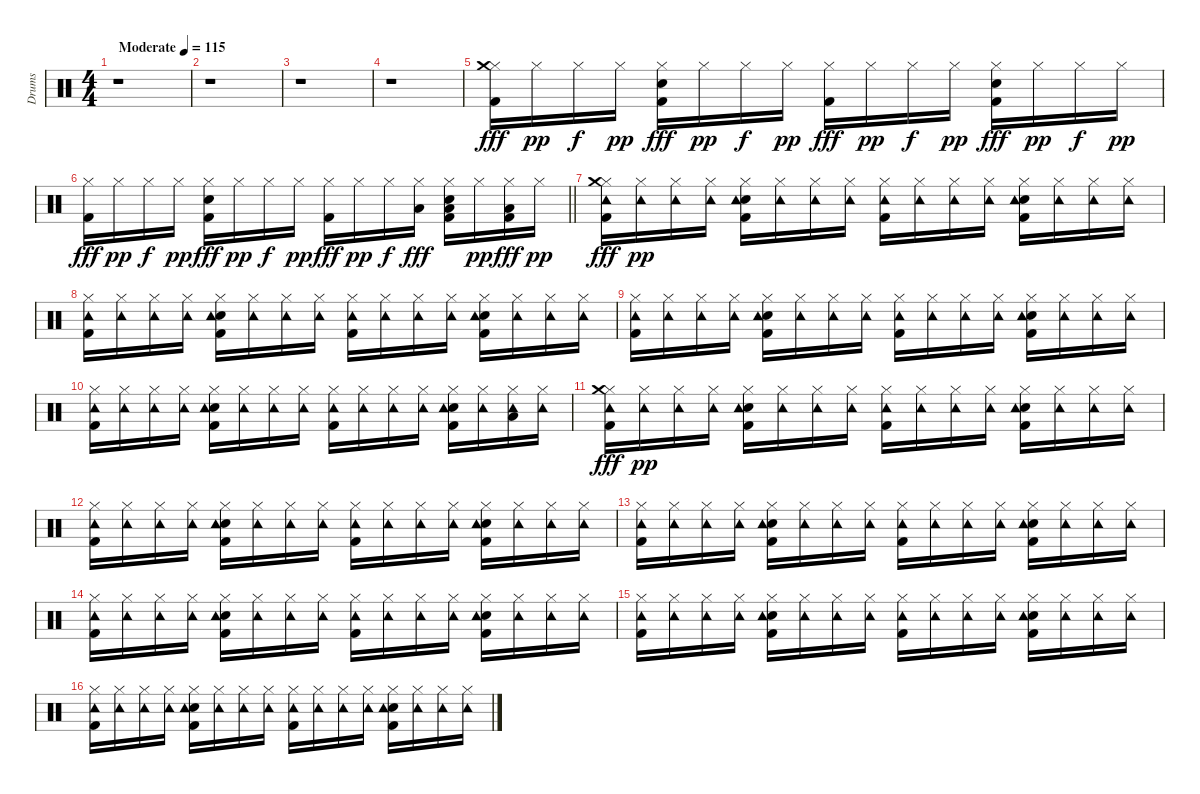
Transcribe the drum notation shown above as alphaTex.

\track ("Drums" "Drums") {instrument percussion}
\staff {score}
\articulation defaults
\ts (4 4)
\tempo (115 "Moderate")
\clef neutral
\ks c
r.1{dy fff} |
r.1 |
r.1 |
r.1 |
("Kick (hit) 2" "Hi-Hat (closed)" "Crash medium (hit)").16 "Hi-Hat (closed)".16{dy pp} "Hi-Hat (closed)".16{dy f} "Hi-Hat (closed)".16{dy pp} ("Kick (hit) 2" "Snare (hit) 2" "Hi-Hat (closed)").16{dy fff} "Hi-Hat (closed)".16{dy pp} "Hi-Hat (closed)".16{dy f} "Hi-Hat (closed)".16{dy pp} ("Kick (hit) 2" "Hi-Hat (closed)").16{dy fff} "Hi-Hat (closed)".16{dy pp} "Hi-Hat (closed)".16{dy f} "Hi-Hat (closed)".16{dy pp} ("Kick (hit) 2" "Snare (hit) 2" "Hi-Hat (closed)").16{dy fff} "Hi-Hat (closed)".16{dy pp} "Hi-Hat (closed)".16{dy f} "Hi-Hat (closed)".16{dy pp} |
\barLineRight lightlight
("Kick (hit) 2" "Hi-Hat (closed)").16{dy fff} "Hi-Hat (closed)".16{dy pp} "Hi-Hat (closed)".16{dy f} "Hi-Hat (closed)".16{dy pp} ("Kick (hit) 2" "Snare (hit) 2" "Hi-Hat (closed)").16{dy fff} "Hi-Hat (closed)".16{dy pp} "Hi-Hat (closed)".16{dy f} "Hi-Hat (closed)".16{dy pp} ("Kick (hit) 2" "Hi-Hat (closed)").16{dy fff} "Hi-Hat (closed)".16{dy pp} "Hi-Hat (closed)".16{dy f} ("Hi-Hat (closed)" "Low Tom (hit)").16{dy fff} ("Kick (hit) 2" "Snare (hit) 2" "Hi-Hat (closed)" "Low Tom (hit)").16 "Hi-Hat (closed)".16{dy pp} ("Kick (hit) 2" "Low Floor Tom (hit)" "Hi-Hat (closed)").16{dy fff} "Hi-Hat (closed)".16{dy pp} |
("Kick (hit) 2" "Hi-Hat (closed)" "Tambourine (hit)" "Crash medium (hit)").16{dy fff} ("Hi-Hat (closed)" "Tambourine (hit)").16{dy pp} ("Hi-Hat (closed)" "Tambourine (hit)").16 ("Hi-Hat (closed)" "Tambourine (hit)").16 ("Kick (hit) 2" "Snare (hit) 2" "Hi-Hat (closed)" "Tambourine (hit)").16 ("Hi-Hat (closed)" "Tambourine (hit)").16 ("Hi-Hat (closed)" "Tambourine (hit)").16 ("Hi-Hat (closed)" "Tambourine (hit)").16 ("Kick (hit) 2" "Hi-Hat (closed)" "Tambourine (hit)").16 ("Hi-Hat (closed)" "Tambourine (hit)").16 ("Hi-Hat (closed)" "Tambourine (hit)").16 ("Hi-Hat (closed)" "Tambourine (hit)").16 ("Kick (hit) 2" "Snare (hit) 2" "Hi-Hat (closed)" "Tambourine (hit)").16 ("Hi-Hat (closed)" "Tambourine (hit)").16 ("Hi-Hat (closed)" "Tambourine (hit)").16 ("Hi-Hat (closed)" "Tambourine (hit)").16 |
("Kick (hit) 2" "Hi-Hat (closed)" "Tambourine (hit)").16 ("Hi-Hat (closed)" "Tambourine (hit)").16 ("Hi-Hat (closed)" "Tambourine (hit)").16 ("Hi-Hat (closed)" "Tambourine (hit)").16 ("Kick (hit) 2" "Snare (hit) 2" "Hi-Hat (closed)" "Tambourine (hit)").16 ("Hi-Hat (closed)" "Tambourine (hit)").16 ("Hi-Hat (closed)" "Tambourine (hit)").16 ("Hi-Hat (closed)" "Tambourine (hit)").16 ("Kick (hit) 2" "Hi-Hat (closed)" "Tambourine (hit)").16 ("Hi-Hat (closed)" "Tambourine (hit)").16 ("Hi-Hat (closed)" "Tambourine (hit)").16 ("Hi-Hat (closed)" "Tambourine (hit)").16 ("Kick (hit) 2" "Snare (hit) 2" "Hi-Hat (closed)" "Tambourine (hit)").16 ("Hi-Hat (closed)" "Tambourine (hit)").16 ("Hi-Hat (closed)" "Tambourine (hit)").16 ("Hi-Hat (closed)" "Tambourine (hit)").16 |
("Kick (hit) 2" "Hi-Hat (closed)" "Tambourine (hit)").16 ("Hi-Hat (closed)" "Tambourine (hit)").16 ("Hi-Hat (closed)" "Tambourine (hit)").16 ("Hi-Hat (closed)" "Tambourine (hit)").16 ("Kick (hit) 2" "Snare (hit) 2" "Hi-Hat (closed)" "Tambourine (hit)").16 ("Hi-Hat (closed)" "Tambourine (hit)").16 ("Hi-Hat (closed)" "Tambourine (hit)").16 ("Hi-Hat (closed)" "Tambourine (hit)").16 ("Kick (hit) 2" "Hi-Hat (closed)" "Tambourine (hit)").16 ("Hi-Hat (closed)" "Tambourine (hit)").16 ("Hi-Hat (closed)" "Tambourine (hit)").16 ("Hi-Hat (closed)" "Tambourine (hit)").16 ("Kick (hit) 2" "Snare (hit) 2" "Hi-Hat (closed)" "Tambourine (hit)").16 ("Hi-Hat (closed)" "Tambourine (hit)").16 ("Hi-Hat (closed)" "Tambourine (hit)").16 ("Hi-Hat (closed)" "Tambourine (hit)").16 |
("Kick (hit) 2" "Hi-Hat (closed)" "Tambourine (hit)").16 ("Hi-Hat (closed)" "Tambourine (hit)").16 ("Hi-Hat (closed)" "Tambourine (hit)").16 ("Hi-Hat (closed)" "Tambourine (hit)").16 ("Kick (hit) 2" "Snare (hit) 2" "Hi-Hat (closed)" "Tambourine (hit)").16 ("Hi-Hat (closed)" "Tambourine (hit)").16 ("Hi-Hat (closed)" "Tambourine (hit)").16 ("Hi-Hat (closed)" "Tambourine (hit)").16 ("Kick (hit) 2" "Hi-Hat (closed)" "Tambourine (hit)").16 ("Hi-Hat (closed)" "Tambourine (hit)").16 ("Hi-Hat (closed)" "Tambourine (hit)").16 ("Hi-Hat (closed)" "Tambourine (hit)").16 ("Kick (hit) 2" "Snare (hit) 2" "Hi-Hat (closed)" "Tambourine (hit)").16 ("Hi-Hat (closed)" "Tambourine (hit)").16 ("Hi-Hat (closed)" "Low Tom (hit)" "Tambourine (hit)").16 ("Hi-Hat (closed)" "Tambourine (hit)").16 |
("Kick (hit) 2" "Hi-Hat (closed)" "Tambourine (hit)" "Crash medium (hit)").16{dy fff} ("Hi-Hat (closed)" "Tambourine (hit)").16{dy pp} ("Hi-Hat (closed)" "Tambourine (hit)").16 ("Hi-Hat (closed)" "Tambourine (hit)").16 ("Kick (hit) 2" "Snare (hit) 2" "Hi-Hat (closed)" "Tambourine (hit)").16 ("Hi-Hat (closed)" "Tambourine (hit)").16 ("Hi-Hat (closed)" "Tambourine (hit)").16 ("Hi-Hat (closed)" "Tambourine (hit)").16 ("Kick (hit) 2" "Hi-Hat (closed)" "Tambourine (hit)").16 ("Hi-Hat (closed)" "Tambourine (hit)").16 ("Hi-Hat (closed)" "Tambourine (hit)").16 ("Hi-Hat (closed)" "Tambourine (hit)").16 ("Kick (hit) 2" "Snare (hit) 2" "Hi-Hat (closed)" "Tambourine (hit)").16 ("Hi-Hat (closed)" "Tambourine (hit)").16 ("Hi-Hat (closed)" "Tambourine (hit)").16 ("Hi-Hat (closed)" "Tambourine (hit)").16 |
("Kick (hit) 2" "Hi-Hat (closed)" "Tambourine (hit)").16 ("Hi-Hat (closed)" "Tambourine (hit)").16 ("Hi-Hat (closed)" "Tambourine (hit)").16 ("Hi-Hat (closed)" "Tambourine (hit)").16 ("Kick (hit) 2" "Snare (hit) 2" "Hi-Hat (closed)" "Tambourine (hit)").16 ("Hi-Hat (closed)" "Tambourine (hit)").16 ("Hi-Hat (closed)" "Tambourine (hit)").16 ("Hi-Hat (closed)" "Tambourine (hit)").16 ("Kick (hit) 2" "Hi-Hat (closed)" "Tambourine (hit)").16 ("Hi-Hat (closed)" "Tambourine (hit)").16 ("Hi-Hat (closed)" "Tambourine (hit)").16 ("Hi-Hat (closed)" "Tambourine (hit)").16 ("Kick (hit) 2" "Snare (hit) 2" "Hi-Hat (closed)" "Tambourine (hit)").16 ("Hi-Hat (closed)" "Tambourine (hit)").16 ("Hi-Hat (closed)" "Tambourine (hit)").16 ("Hi-Hat (closed)" "Tambourine (hit)").16 |
("Kick (hit) 2" "Hi-Hat (closed)" "Tambourine (hit)").16 ("Hi-Hat (closed)" "Tambourine (hit)").16 ("Hi-Hat (closed)" "Tambourine (hit)").16 ("Hi-Hat (closed)" "Tambourine (hit)").16 ("Kick (hit) 2" "Snare (hit) 2" "Hi-Hat (closed)" "Tambourine (hit)").16 ("Hi-Hat (closed)" "Tambourine (hit)").16 ("Hi-Hat (closed)" "Tambourine (hit)").16 ("Hi-Hat (closed)" "Tambourine (hit)").16 ("Kick (hit) 2" "Hi-Hat (closed)" "Tambourine (hit)").16 ("Hi-Hat (closed)" "Tambourine (hit)").16 ("Hi-Hat (closed)" "Tambourine (hit)").16 ("Hi-Hat (closed)" "Tambourine (hit)").16 ("Kick (hit) 2" "Snare (hit) 2" "Hi-Hat (closed)" "Tambourine (hit)").16 ("Hi-Hat (closed)" "Tambourine (hit)").16 ("Hi-Hat (closed)" "Tambourine (hit)").16 ("Hi-Hat (closed)" "Tambourine (hit)").16 |
("Kick (hit) 2" "Hi-Hat (closed)" "Tambourine (hit)").16 ("Hi-Hat (closed)" "Tambourine (hit)").16 ("Hi-Hat (closed)" "Tambourine (hit)").16 ("Hi-Hat (closed)" "Tambourine (hit)").16 ("Kick (hit) 2" "Snare (hit) 2" "Hi-Hat (closed)" "Tambourine (hit)").16 ("Hi-Hat (closed)" "Tambourine (hit)").16 ("Hi-Hat (closed)" "Tambourine (hit)").16 ("Hi-Hat (closed)" "Tambourine (hit)").16 ("Kick (hit) 2" "Hi-Hat (closed)" "Tambourine (hit)").16 ("Hi-Hat (closed)" "Tambourine (hit)").16 ("Hi-Hat (closed)" "Tambourine (hit)").16 ("Hi-Hat (closed)" "Tambourine (hit)").16 ("Kick (hit) 2" "Snare (hit) 2" "Hi-Hat (closed)" "Tambourine (hit)").16 ("Hi-Hat (closed)" "Tambourine (hit)").16 ("Hi-Hat (closed)" "Tambourine (hit)").16 ("Hi-Hat (closed)" "Tambourine (hit)").16 |
("Kick (hit) 2" "Hi-Hat (closed)" "Tambourine (hit)").16 ("Hi-Hat (closed)" "Tambourine (hit)").16 ("Hi-Hat (closed)" "Tambourine (hit)").16 ("Hi-Hat (closed)" "Tambourine (hit)").16 ("Kick (hit) 2" "Snare (hit) 2" "Hi-Hat (closed)" "Tambourine (hit)").16 ("Hi-Hat (closed)" "Tambourine (hit)").16 ("Hi-Hat (closed)" "Tambourine (hit)").16 ("Hi-Hat (closed)" "Tambourine (hit)").16 ("Kick (hit) 2" "Hi-Hat (closed)" "Tambourine (hit)").16 ("Hi-Hat (closed)" "Tambourine (hit)").16 ("Hi-Hat (closed)" "Tambourine (hit)").16 ("Hi-Hat (closed)" "Tambourine (hit)").16 ("Kick (hit) 2" "Snare (hit) 2" "Hi-Hat (closed)" "Tambourine (hit)").16 ("Hi-Hat (closed)" "Tambourine (hit)").16 ("Hi-Hat (closed)" "Tambourine (hit)").16 ("Hi-Hat (closed)" "Tambourine (hit)").16 |
("Kick (hit) 2" "Hi-Hat (closed)" "Tambourine (hit)").16 ("Hi-Hat (closed)" "Tambourine (hit)").16 ("Hi-Hat (closed)" "Tambourine (hit)").16 ("Hi-Hat (closed)" "Tambourine (hit)").16 ("Kick (hit) 2" "Snare (hit) 2" "Hi-Hat (closed)" "Tambourine (hit)").16 ("Hi-Hat (closed)" "Tambourine (hit)").16 ("Hi-Hat (closed)" "Tambourine (hit)").16 ("Hi-Hat (closed)" "Tambourine (hit)").16 ("Kick (hit) 2" "Hi-Hat (closed)" "Tambourine (hit)").16 ("Hi-Hat (closed)" "Tambourine (hit)").16 ("Hi-Hat (closed)" "Tambourine (hit)").16 ("Hi-Hat (closed)" "Tambourine (hit)").16 ("Kick (hit) 2" "Snare (hit) 2" "Hi-Hat (closed)" "Tambourine (hit)").16 ("Hi-Hat (closed)" "Tambourine (hit)").16 ("Hi-Hat (closed)" "Tambourine (hit)").16 ("Hi-Hat (closed)" "Tambourine (hit)").16
